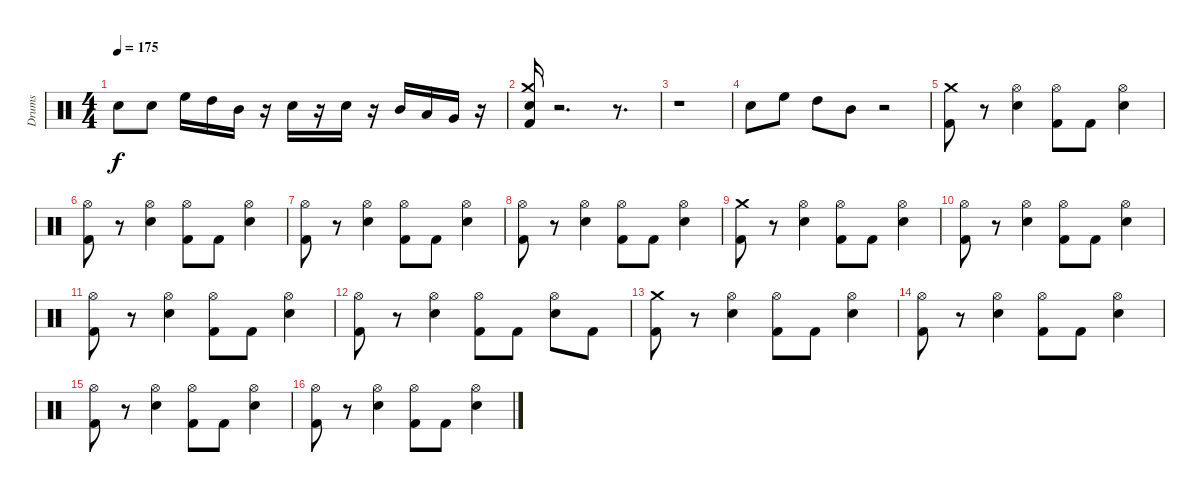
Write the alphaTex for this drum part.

\track ("Drums" "Drums") {instrument percussion}
\staff {score}
\articulation defaults
\ts (4 4)
\tempo 175
\clef neutral
\ks c "Electric Snare (hit)".8{dy f} "Electric Snare (hit)".8 "High Floor Tom (hit)".16 "High Tom (hit)".16 "Mid Tom (hit)".16
r.16 "Electric Snare (hit)".16 r.16 "Electric Snare (hit)".16 r.16 "Mid Tom (hit)".16 "Low Tom (hit)".16 "Very Low Tom (hit)".16 r.16 |
("Crash medium (hit)" "Kick (hit) 2" "Electric Snare (hit)").16 r.2{d} r.8{d} |
r.1 |
"Electric Snare (hit)".8 "High Floor Tom (hit)".8 "High Tom (hit)".8 "Mid Tom (hit)".8 r.2 |
("Kick (hit) 2" "Crash medium (hit)").8 r.8 ("Hi-Hat (open)" "Electric Snare (hit)").4 ("Hi-Hat (open)" "Kick (hit) 2").8 "Kick (hit) 2".8 ("Hi-Hat (open)" "Electric Snare (hit)").4 |
("Hi-Hat (open)" "Kick (hit) 2").8 r.8 ("Hi-Hat (open)" "Electric Snare (hit)").4 ("Hi-Hat (open)" "Kick (hit) 2").8 "Kick (hit) 2".8 ("Hi-Hat (open)" "Electric Snare (hit)").4 |
("Hi-Hat (open)" "Kick (hit) 2").8 r.8 ("Hi-Hat (open)" "Electric Snare (hit)").4 ("Hi-Hat (open)" "Kick (hit) 2").8 "Kick (hit) 2".8 ("Hi-Hat (open)" "Electric Snare (hit)").4 |
("Hi-Hat (open)" "Kick (hit) 2").8 r.8 ("Hi-Hat (open)" "Electric Snare (hit)").4 ("Hi-Hat (open)" "Kick (hit) 2").8 "Kick (hit) 2".8 ("Hi-Hat (open)" "Electric Snare (hit)").4 |
("Kick (hit) 2" "Crash medium (hit)").8 r.8 ("Hi-Hat (open)" "Electric Snare (hit)").4 ("Hi-Hat (open)" "Kick (hit) 2").8 "Kick (hit) 2".8 ("Hi-Hat (open)" "Electric Snare (hit)").4 |
("Hi-Hat (open)" "Kick (hit) 2").8 r.8 ("Hi-Hat (open)" "Electric Snare (hit)").4 ("Hi-Hat (open)" "Kick (hit) 2").8 "Kick (hit) 2".8 ("Hi-Hat (open)" "Electric Snare (hit)").4 |
("Hi-Hat (open)" "Kick (hit) 2").8 r.8 ("Hi-Hat (open)" "Electric Snare (hit)").4 ("Hi-Hat (open)" "Kick (hit) 2").8 "Kick (hit) 2".8 ("Hi-Hat (open)" "Electric Snare (hit)").4 |
("Hi-Hat (open)" "Kick (hit) 2").8 r.8 ("Hi-Hat (open)" "Electric Snare (hit)").4 ("Hi-Hat (open)" "Kick (hit) 2").8 "Kick (hit) 2".8 ("Hi-Hat (open)" "Electric Snare (hit)").8 "Kick (hit) 2".8 |
("Kick (hit) 2" "Crash medium (hit)").8 r.8 ("Hi-Hat (open)" "Electric Snare (hit)").4 ("Hi-Hat (open)" "Kick (hit) 2").8 "Kick (hit) 2".8 ("Hi-Hat (open)" "Electric Snare (hit)").4 |
("Hi-Hat (open)" "Kick (hit) 2").8 r.8 ("Hi-Hat (open)" "Electric Snare (hit)").4 ("Hi-Hat (open)" "Kick (hit) 2").8 "Kick (hit) 2".8 ("Hi-Hat (open)" "Electric Snare (hit)").4 |
("Hi-Hat (open)" "Kick (hit) 2").8 r.8 ("Hi-Hat (open)" "Electric Snare (hit)").4 ("Hi-Hat (open)" "Kick (hit) 2").8 "Kick (hit) 2".8 ("Hi-Hat (open)" "Electric Snare (hit)").4 |
("Hi-Hat (open)" "Kick (hit) 2").8 r.8 ("Hi-Hat (open)" "Electric Snare (hit)").4 ("Hi-Hat (open)" "Kick (hit) 2").8 "Kick (hit) 2".8 ("Hi-Hat (open)" "Electric Snare (hit)").4
